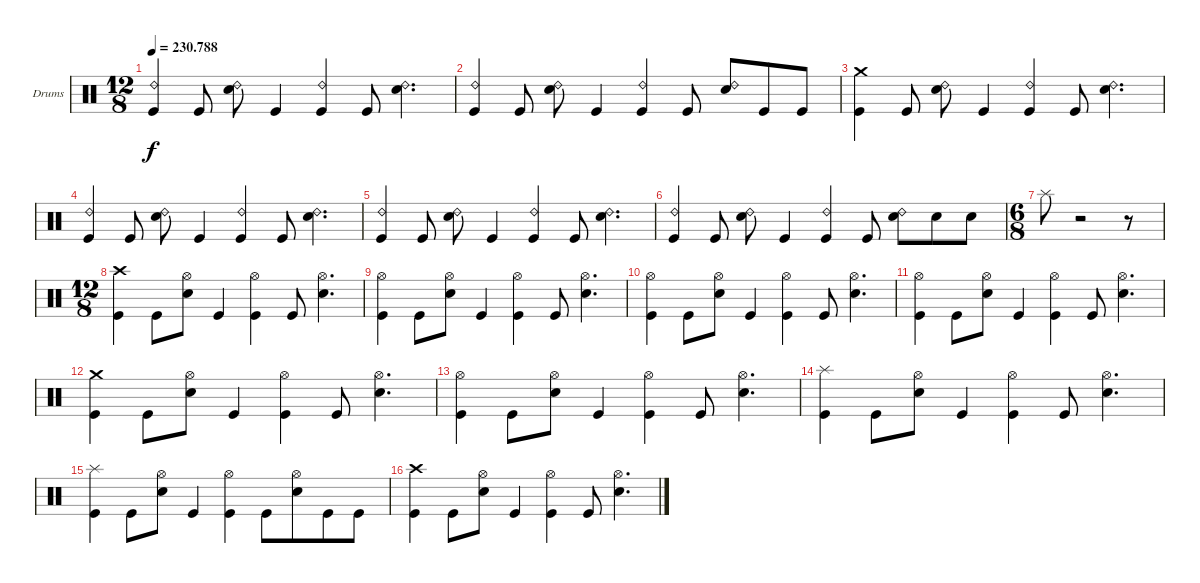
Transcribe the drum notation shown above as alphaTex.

\bracketExtendMode groupsimilarinstruments
\firstSystemTrackNameOrientation horizontal
\otherSystemsTrackNameOrientation horizontal
\track ("Ударные" "Drums") {instrument percussion}
\staff {score}
\articulation defaults
\ts (12 8)
\tempo
230.788
\accidentals auto
\clef neutral
\ottava regular
\simile none
\ks c
("Kick (hit)" "Ride (bell) 2").4{dy f} "Kick (hit)".8 ("Ride (bell) 2" "Snare (hit) 2").8 "Kick (hit)".4 ("Kick (hit)" "Ride (bell) 2").4 "Kick (hit)".8 ("Ride (bell) 2" "Snare (hit) 2").4{d} |
("Kick (hit)" "Ride (bell) 2").4 "Kick (hit)".8 ("Ride (bell) 2" "Snare (hit) 2").8 "Kick (hit)".4 ("Ride (bell) 2" "Kick (hit)").4 "Kick (hit)".8 ("Ride (bell) 2" "Snare (hit) 2").8 "Kick (hit)".8 "Kick (hit)".8 |
("Crash medium (hit)" "Kick (hit)").4 "Kick (hit)".8 ("Ride (bell) 2" "Snare (hit) 2").8 "Kick (hit)".4 ("Ride (bell) 2" "Kick (hit)").4 "Kick (hit)".8 ("Ride (bell) 2" "Snare (hit) 2").4{d} |
("Ride (bell) 2" "Kick (hit)").4 "Kick (hit)".8 ("Ride (bell) 2" "Snare (hit) 2").8 "Kick (hit)".4 ("Ride (bell) 2" "Kick (hit)").4 "Kick (hit)".8 ("Ride (bell) 2" "Snare (hit) 2").4{d} |
("Kick (hit)" "Ride (bell) 2").4 "Kick (hit)".8 ("Ride (bell) 2" "Snare (hit) 2").8 "Kick (hit)".4 ("Kick (hit)" "Ride (bell) 2").4 "Kick (hit)".8 ("Ride (bell) 2" "Snare (hit) 2").4{d} |
("Kick (hit)" "Ride (bell) 2").4 "Kick (hit)".8 ("Ride (bell) 2" "Snare (hit) 2").8 "Kick (hit)".4 ("Ride (bell) 2" "Kick (hit)").4 "Kick (hit)".8 ("Ride (bell) 2" "Snare (hit) 2").8 "Snare (hit) 2".8 "Snare (hit) 2".8 |
\ts (6 8)
\beaming (8 2 2 2 2)
"Splash (hit)".8 r.2 r.8 |
\ts (12 8)
\beaming (8 2 2 2 6)
("Kick (hit)" "Crash high (hit)").4 "Kick (hit)".8 ("Snare (hit) 2" "Hi-Hat (open)").8 "Kick (hit)".4 ("Kick (hit)" "Hi-Hat (open)").4 "Kick (hit)".8 ("Snare (hit) 2" "Hi-Hat (open)").4{d} |
("Hi-Hat (open)" "Kick (hit)").4 "Kick (hit)".8 ("Hi-Hat (open)" "Snare (hit) 2").8 "Kick (hit)".4 ("Hi-Hat (open)" "Kick (hit)").4 "Kick (hit)".8 ("Hi-Hat (open)" "Snare (hit) 2").4{d} |
("Hi-Hat (open)" "Kick (hit)").4 "Kick (hit)".8 ("Hi-Hat (open)" "Snare (hit) 2").8 "Kick (hit)".4 ("Hi-Hat (open)" "Kick (hit)").4 "Kick (hit)".8 ("Hi-Hat (open)" "Snare (hit) 2").4{d} |
("Hi-Hat (open)" "Kick (hit)").4 "Kick (hit)".8 ("Hi-Hat (open)" "Snare (hit) 2").8 "Kick (hit)".4 ("Hi-Hat (open)" "Kick (hit)").4 "Kick (hit)".8 ("Hi-Hat (open)" "Snare (hit) 2").4{d} |
("Kick (hit)" "Crash medium (hit)").4 "Kick (hit)".8 ("Snare (hit) 2" "Hi-Hat (open)").8 "Kick (hit)".4 ("Kick (hit)" "Hi-Hat (open)").4 "Kick (hit)".8 ("Snare (hit) 2" "Hi-Hat (open)").4{d} |
("Hi-Hat (open)" "Kick (hit)").4 "Kick (hit)".8 ("Hi-Hat (open)" "Snare (hit) 2").8 "Kick (hit)".4 ("Hi-Hat (open)" "Kick (hit)").4 "Kick (hit)".8 ("Hi-Hat (open)" "Snare (hit) 2").4{d} |
("Splash (hit)" "Kick (hit)").4 "Kick (hit)".8 ("Hi-Hat (open)" "Snare (hit) 2").8 "Kick (hit)".4 ("Hi-Hat (open)" "Kick (hit)").4 "Kick (hit)".8 ("Hi-Hat (open)" "Snare (hit) 2").4{d} |
("Splash (hit)" "Kick (hit)").4 "Kick (hit)".8 ("Hi-Hat (open)" "Snare (hit) 2").8 "Kick (hit)".4 ("Hi-Hat (open)" "Kick (hit)").4 "Kick (hit)".8 ("Snare (hit) 2" "Hi-Hat (open)").8 "Kick (hit)".8 "Kick (hit)".8 |
("Kick (hit)" "Crash high (hit)").4 "Kick (hit)".8 ("Snare (hit) 2" "Hi-Hat (open)").8 "Kick (hit)".4 ("Kick (hit)" "Hi-Hat (open)").4 "Kick (hit)".8 ("Snare (hit) 2" "Hi-Hat (open)").4{d}
